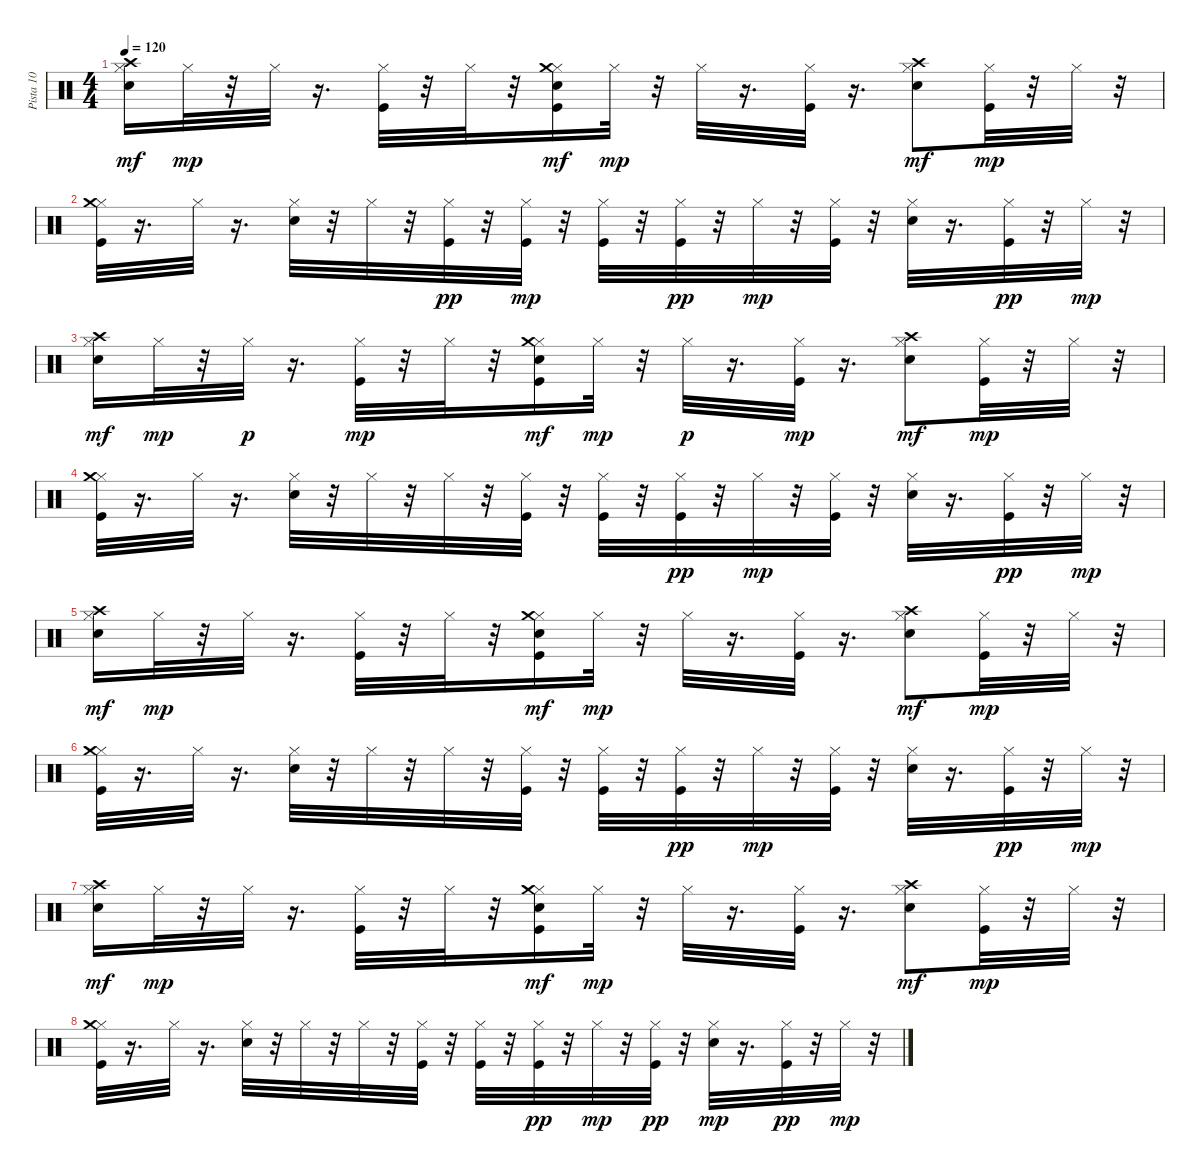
\track ("Pista 10" "Pista 10") {instrument percussion}
\staff {score}
\articulation defaults
\ts (4 4)
\tempo 120
\clef neutral
\ks c
("Hi-Hat (closed)" "Crash high (hit)" "Snare (hit) 2").16{dy mf} "Hi-Hat (closed)".32{dy mp} r.32 "Hi-Hat (closed)".32 r.16{d} ("Kick (hit)" "Hi-Hat (closed)").32 r.32 "Hi-Hat (closed)".32 r.32 ("Kick (hit)" "Hi-Hat (closed)" "Crash medium (hit)" "Snare (hit) 2").16{dy mf} "Hi-Hat (closed)".32{dy mp} r.32 "Hi-Hat (closed)".32 r.16{d} ("Kick (hit)" "Hi-Hat (closed)").32 r.16{d} ("Hi-Hat (closed)" "Crash high (hit)" "Snare (hit) 2").8{dy mf} ("Kick (hit)" "Hi-Hat (closed)").32{dy mp} r.32 "Hi-Hat (closed)".32 r.32 |
("Kick (hit)" "Hi-Hat (closed)" "Crash medium (hit)").32 r.16{d} "Hi-Hat (closed)".32 r.16{d} ("Hi-Hat (closed)" "Snare (hit) 2").32 r.32 "Hi-Hat (closed)".32 r.32 ("Hi-Hat (closed)" "Kick (hit)").32{dy pp} r.32 ("Kick (hit)" "Hi-Hat (closed)").32{dy mp} r.32 ("Kick (hit)" "Hi-Hat (closed)").32 r.32 ("Hi-Hat (closed)" "Kick (hit)").32{dy pp} r.32 "Hi-Hat (closed)".32{dy mp} r.32 ("Hi-Hat (closed)" "Kick (hit)").32 r.32 ("Hi-Hat (closed)" "Snare (hit) 2").32 r.16{d} ("Hi-Hat (closed)" "Kick (hit)").32{dy pp} r.32 "Hi-Hat (closed)".32{dy mp} r.32 |
("Hi-Hat (closed)" "Crash high (hit)" "Snare (hit) 2").16{dy mf} "Hi-Hat (closed)".32{dy mp} r.32 "Hi-Hat (closed)".32{dy p} r.16{d} ("Kick (hit)" "Hi-Hat (closed)").32{dy mp} r.32 "Hi-Hat (closed)".32 r.32 ("Kick (hit)" "Hi-Hat (closed)" "Crash medium (hit)" "Snare (hit) 2").16{dy mf} "Hi-Hat (closed)".32{dy mp} r.32 "Hi-Hat (closed)".32{dy p} r.16{d} ("Kick (hit)" "Hi-Hat (closed)").32{dy mp} r.16{d} ("Hi-Hat (closed)" "Crash high (hit)" "Snare (hit) 2").8{dy mf} ("Kick (hit)" "Hi-Hat (closed)").32{dy mp} r.32 "Hi-Hat (closed)".32 r.32 |
("Kick (hit)" "Hi-Hat (closed)" "Crash medium (hit)").32 r.16{d} "Hi-Hat (closed)".32 r.16{d} ("Hi-Hat (closed)" "Snare (hit) 2").32 r.32 "Hi-Hat (closed)".32 r.32 "Hi-Hat (closed)".32 r.32 ("Kick (hit)" "Hi-Hat (closed)").32 r.32 ("Kick (hit)" "Hi-Hat (closed)").32 r.32 ("Hi-Hat (closed)" "Kick (hit)").32{dy pp} r.32 "Hi-Hat (closed)".32{dy mp} r.32 ("Hi-Hat (closed)" "Kick (hit)").32 r.32 ("Hi-Hat (closed)" "Snare (hit) 2").32 r.16{d} ("Hi-Hat (closed)" "Kick (hit)").32{dy pp} r.32 "Hi-Hat (closed)".32{dy mp} r.32 |
("Hi-Hat (closed)" "Crash high (hit)" "Snare (hit) 2").16{dy mf} "Hi-Hat (closed)".32{dy mp} r.32 "Hi-Hat (closed)".32 r.16{d} ("Kick (hit)" "Hi-Hat (closed)").32 r.32 "Hi-Hat (closed)".32 r.32 ("Kick (hit)" "Hi-Hat (closed)" "Crash medium (hit)" "Snare (hit) 2").16{dy mf} "Hi-Hat (closed)".32{dy mp} r.32 "Hi-Hat (closed)".32 r.16{d} ("Kick (hit)" "Hi-Hat (closed)").32 r.16{d} ("Hi-Hat (closed)" "Crash high (hit)" "Snare (hit) 2").8{dy mf} ("Kick (hit)" "Hi-Hat (closed)").32{dy mp} r.32 "Hi-Hat (closed)".32 r.32 |
("Kick (hit)" "Hi-Hat (closed)" "Crash medium (hit)").32 r.16{d} "Hi-Hat (closed)".32 r.16{d} ("Hi-Hat (closed)" "Snare (hit) 2").32 r.32 "Hi-Hat (closed)".32 r.32 "Hi-Hat (closed)".32 r.32 ("Kick (hit)" "Hi-Hat (closed)").32 r.32 ("Kick (hit)" "Hi-Hat (closed)").32 r.32 ("Hi-Hat (closed)" "Kick (hit)").32{dy pp} r.32 "Hi-Hat (closed)".32{dy mp} r.32 ("Hi-Hat (closed)" "Kick (hit)").32 r.32 ("Hi-Hat (closed)" "Snare (hit) 2").32 r.16{d} ("Hi-Hat (closed)" "Kick (hit)").32{dy pp} r.32 "Hi-Hat (closed)".32{dy mp} r.32 |
("Hi-Hat (closed)" "Crash high (hit)" "Snare (hit) 2").16{dy mf} "Hi-Hat (closed)".32{dy mp} r.32 "Hi-Hat (closed)".32 r.16{d} ("Kick (hit)" "Hi-Hat (closed)").32 r.32 "Hi-Hat (closed)".32 r.32 ("Kick (hit)" "Hi-Hat (closed)" "Crash medium (hit)" "Snare (hit) 2").16{dy mf} "Hi-Hat (closed)".32{dy mp} r.32 "Hi-Hat (closed)".32 r.16{d} ("Kick (hit)" "Hi-Hat (closed)").32 r.16{d} ("Hi-Hat (closed)" "Crash high (hit)" "Snare (hit) 2").8{dy mf} ("Kick (hit)" "Hi-Hat (closed)").32{dy mp} r.32 "Hi-Hat (closed)".32 r.32 |
("Kick (hit)" "Hi-Hat (closed)" "Crash medium (hit)").32 r.16{d} "Hi-Hat (closed)".32 r.16{d} ("Hi-Hat (closed)" "Snare (hit) 2").32 r.32 "Hi-Hat (closed)".32 r.32 "Hi-Hat (closed)".32 r.32 ("Kick (hit)" "Hi-Hat (closed)").32 r.32 ("Kick (hit)" "Hi-Hat (closed)").32 r.32 ("Kick (hit)" "Hi-Hat (closed)").32{dy pp} r.32 "Hi-Hat (closed)".32{dy mp} r.32 ("Kick (hit)" "Hi-Hat (closed)").32{dy pp} r.32 ("Hi-Hat (closed)" "Snare (hit) 2").32{dy mp} r.16{d} ("Hi-Hat (closed)" "Kick (hit)").32{dy pp} r.32 "Hi-Hat (closed)".32{dy mp} r.32
